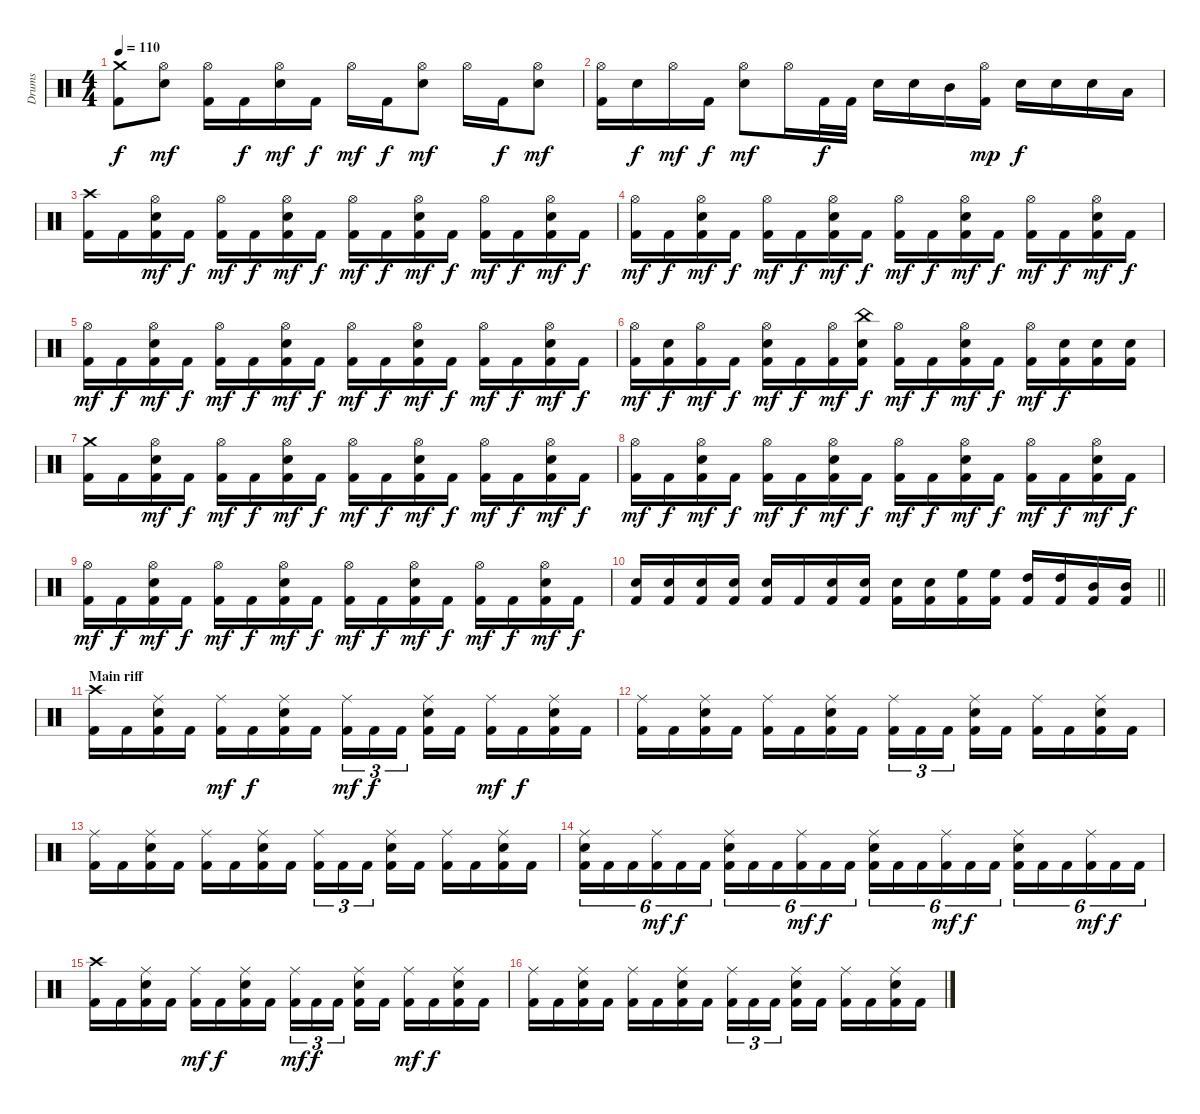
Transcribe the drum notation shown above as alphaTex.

\track ("Drums" "Drums") {instrument percussion}
\staff {score}
\articulation defaults
\ts (4 4)
\tempo 110
\clef neutral
\ks c
("Crash medium (hit)" "Kick (hit) 2").8{dy f} ("Hi-Hat (open)" "Electric Snare (hit)").8{dy mf} ("Hi-Hat (open)" "Kick (hit) 2").16 "Kick (hit) 2".16{dy f} ("Hi-Hat (open)" "Electric Snare (hit)").16{dy mf} "Kick (hit) 2".16{dy f} "Hi-Hat (open)".16{dy mf} "Kick (hit) 2".16{dy f} ("Hi-Hat (open)" "Electric Snare (hit)").8{dy mf} "Hi-Hat (open)".16 "Kick (hit) 2".16{dy f} ("Hi-Hat (open)" "Electric Snare (hit)").8{dy mf} |
("Hi-Hat (open)" "Kick (hit) 2").16 "Electric Snare (hit)".16{dy f} "Hi-Hat (open)".16{dy mf} "Kick (hit) 2".16{dy f} ("Hi-Hat (open)" "Electric Snare (hit)").8{dy mf} "Hi-Hat (open)".16 "Kick (hit) 2".32{dy f} "Kick (hit) 2".32 "Electric Snare (hit)".16 "Electric Snare (hit)".16 "Mid Tom (hit)".16 ("Hi-Hat (open)" "Kick (hit) 2").16{dy mp} "Electric Snare (hit)".16{dy f} "Electric Snare (hit)".16 "Electric Snare (hit)".16 "Low Tom (hit)".16 |
("Crash high (hit)" "Kick (hit) 2").16 "Kick (hit) 2".16 ("Hi-Hat (open)" "Electric Snare (hit)" "Kick (hit) 2").16{dy mf} "Kick (hit) 2".16{dy f} ("Hi-Hat (open)" "Kick (hit) 2").16{dy mf} "Kick (hit) 2".16{dy f} ("Hi-Hat (open)" "Electric Snare (hit)" "Kick (hit) 2").16{dy mf} "Kick (hit) 2".16{dy f} ("Hi-Hat (open)" "Kick (hit) 2").16{dy mf} "Kick (hit) 2".16{dy f} ("Hi-Hat (open)" "Electric Snare (hit)" "Kick (hit) 2").16{dy mf} "Kick (hit) 2".16{dy f} ("Hi-Hat (open)" "Kick (hit) 2").16{dy mf} "Kick (hit) 2".16{dy f} ("Hi-Hat (open)" "Electric Snare (hit)" "Kick (hit) 2").16{dy mf} "Kick (hit) 2".16{dy f} |
("Hi-Hat (open)" "Kick (hit) 2").16{dy mf} "Kick (hit) 2".16{dy f} ("Hi-Hat (open)" "Electric Snare (hit)" "Kick (hit) 2").16{dy mf} "Kick (hit) 2".16{dy f} ("Hi-Hat (open)" "Kick (hit) 2").16{dy mf} "Kick (hit) 2".16{dy f} ("Hi-Hat (open)" "Electric Snare (hit)" "Kick (hit) 2").16{dy mf} "Kick (hit) 2".16{dy f} ("Hi-Hat (open)" "Kick (hit) 2").16{dy mf} "Kick (hit) 2".16{dy f} ("Hi-Hat (open)" "Electric Snare (hit)" "Kick (hit) 2").16{dy mf} "Kick (hit) 2".16{dy f} ("Hi-Hat (open)" "Kick (hit) 2").16{dy mf} "Kick (hit) 2".16{dy f} ("Hi-Hat (open)" "Electric Snare (hit)" "Kick (hit) 2").16{dy mf} "Kick (hit) 2".16{dy f} |
("Hi-Hat (open)" "Kick (hit) 2").16{dy mf} "Kick (hit) 2".16{dy f} ("Hi-Hat (open)" "Electric Snare (hit)" "Kick (hit) 2").16{dy mf} "Kick (hit) 2".16{dy f} ("Hi-Hat (open)" "Kick (hit) 2").16{dy mf} "Kick (hit) 2".16{dy f} ("Hi-Hat (open)" "Electric Snare (hit)" "Kick (hit) 2").16{dy mf} "Kick (hit) 2".16{dy f} ("Hi-Hat (open)" "Kick (hit) 2").16{dy mf} "Kick (hit) 2".16{dy f} ("Hi-Hat (open)" "Electric Snare (hit)" "Kick (hit) 2").16{dy mf} "Kick (hit) 2".16{dy f} ("Hi-Hat (open)" "Kick (hit) 2").16{dy mf} "Kick (hit) 2".16{dy f} ("Hi-Hat (open)" "Electric Snare (hit)" "Kick (hit) 2").16{dy mf} "Kick (hit) 2".16{dy f} |
("Hi-Hat (open)" "Kick (hit) 2").16{dy mf} ("Electric Snare (hit)" "Kick (hit) 2").16{dy f} ("Hi-Hat (open)" "Kick (hit) 2").16{dy mf} "Kick (hit) 2".16{dy f} ("Hi-Hat (open)" "Electric Snare (hit)" "Kick (hit) 2").16{dy mf} "Kick (hit) 2".16{dy f} ("Hi-Hat (open)" "Kick (hit) 2").16{dy mf} ("China (hit)" "Electric Snare (hit)" "Kick (hit) 2").16{dy f} ("Hi-Hat (open)" "Kick (hit) 2").16{dy mf} "Kick (hit) 2".16{dy f} ("Hi-Hat (open)" "Electric Snare (hit)" "Kick (hit) 2").16{dy mf} "Kick (hit) 2".16{dy f} ("Hi-Hat (open)" "Kick (hit) 2").16{dy mf} ("Electric Snare (hit)" "Kick (hit) 2").16{dy f} ("Electric Snare (hit)" "Kick (hit) 2").16 ("Electric Snare (hit)" "Kick (hit) 2").16 |
("Crash medium (hit)" "Kick (hit) 2").16 "Kick (hit) 2".16 ("Hi-Hat (open)" "Electric Snare (hit)" "Kick (hit) 2").16{dy mf} "Kick (hit) 2".16{dy f} ("Hi-Hat (open)" "Kick (hit) 2").16{dy mf} "Kick (hit) 2".16{dy f} ("Hi-Hat (open)" "Electric Snare (hit)" "Kick (hit) 2").16{dy mf} "Kick (hit) 2".16{dy f} ("Hi-Hat (open)" "Kick (hit) 2").16{dy mf} "Kick (hit) 2".16{dy f} ("Hi-Hat (open)" "Electric Snare (hit)" "Kick (hit) 2").16{dy mf} "Kick (hit) 2".16{dy f} ("Hi-Hat (open)" "Kick (hit) 2").16{dy mf} "Kick (hit) 2".16{dy f} ("Hi-Hat (open)" "Electric Snare (hit)" "Kick (hit) 2").16{dy mf} "Kick (hit) 2".16{dy f} |
("Hi-Hat (open)" "Kick (hit) 2").16{dy mf} "Kick (hit) 2".16{dy f} ("Hi-Hat (open)" "Electric Snare (hit)" "Kick (hit) 2").16{dy mf} "Kick (hit) 2".16{dy f} ("Hi-Hat (open)" "Kick (hit) 2").16{dy mf} "Kick (hit) 2".16{dy f} ("Hi-Hat (open)" "Electric Snare (hit)" "Kick (hit) 2").16{dy mf} "Kick (hit) 2".16{dy f} ("Hi-Hat (open)" "Kick (hit) 2").16{dy mf} "Kick (hit) 2".16{dy f} ("Hi-Hat (open)" "Electric Snare (hit)" "Kick (hit) 2").16{dy mf} "Kick (hit) 2".16{dy f} ("Hi-Hat (open)" "Kick (hit) 2").16{dy mf} "Kick (hit) 2".16{dy f} ("Hi-Hat (open)" "Electric Snare (hit)" "Kick (hit) 2").16{dy mf} "Kick (hit) 2".16{dy f} |
("Hi-Hat (open)" "Kick (hit) 2").16{dy mf} "Kick (hit) 2".16{dy f} ("Hi-Hat (open)" "Electric Snare (hit)" "Kick (hit) 2").16{dy mf} "Kick (hit) 2".16{dy f} ("Hi-Hat (open)" "Kick (hit) 2").16{dy mf} "Kick (hit) 2".16{dy f} ("Hi-Hat (open)" "Electric Snare (hit)" "Kick (hit) 2").16{dy mf} "Kick (hit) 2".16{dy f} ("Hi-Hat (open)" "Kick (hit) 2").16{dy mf} "Kick (hit) 2".16{dy f} ("Hi-Hat (open)" "Electric Snare (hit)" "Kick (hit) 2").16{dy mf} "Kick (hit) 2".16{dy f} ("Hi-Hat (open)" "Kick (hit) 2").16{dy mf} "Kick (hit) 2".16{dy f} ("Hi-Hat (open)" "Electric Snare (hit)" "Kick (hit) 2").16{dy mf} "Kick (hit) 2".16{dy f} |
\barLineRight lightlight
("Electric Snare (hit)" "Kick (hit) 2").16 ("Electric Snare (hit)" "Kick (hit) 2").16 ("Electric Snare (hit)" "Kick (hit) 2").16 ("Electric Snare (hit)" "Kick (hit) 2").16 ("Electric Snare (hit)" "Kick (hit) 2").16 "Kick (hit) 2".16 ("Electric Snare (hit)" "Kick (hit) 2").16 ("Electric Snare (hit)" "Kick (hit) 2").16 ("Electric Snare (hit)" "Kick (hit) 2").16 ("Electric Snare (hit)" "Kick (hit) 2").16 ("High Floor Tom (hit)" "Kick (hit) 2").16 ("High Floor Tom (hit)" "Kick (hit) 2").16 ("High Tom (hit)" "Kick (hit) 2").16 ("High Tom (hit)" "Kick (hit) 2").16 ("Mid Tom (hit)" "Kick (hit) 2").16 ("Mid Tom (hit)" "Kick (hit) 2").16 |
\section ("" "Main riff")
("Crash high (hit)" "Kick (hit) 2").16 "Kick (hit) 2".16 ("Ride (middle)" "Electric Snare (hit)" "Kick (hit) 2").16 "Kick (hit) 2".16 ("Ride (middle)" "Kick (hit) 2").16{dy mf} "Kick (hit) 2".16{dy f} ("Ride (middle)" "Electric Snare (hit)" "Kick (hit) 2").16 "Kick (hit) 2".16 ("Ride (middle)" "Kick (hit) 2").16{tu (3 2) dy mf} "Kick (hit) 2".16{tu (3 2) dy f} "Kick (hit) 2".16{tu (3 2)} ("Ride (middle)" "Electric Snare (hit)" "Kick (hit) 2").16 "Kick (hit) 2".16 ("Ride (middle)" "Kick (hit) 2").16{dy mf} "Kick (hit) 2".16{dy f} ("Ride (middle)" "Electric Snare (hit)" "Kick (hit) 2").16 "Kick (hit) 2".16 |
("Ride (middle)" "Kick (hit) 2").16 "Kick (hit) 2".16 ("Ride (middle)" "Electric Snare (hit)" "Kick (hit) 2").16 "Kick (hit) 2".16 ("Ride (middle)" "Kick (hit) 2").16 "Kick (hit) 2".16 ("Ride (middle)" "Electric Snare (hit)" "Kick (hit) 2").16 "Kick (hit) 2".16 ("Ride (middle)" "Kick (hit) 2").16{tu (3 2)} "Kick (hit) 2".16{tu (3 2)} "Kick (hit) 2".16{tu (3 2)} ("Ride (middle)" "Electric Snare (hit)" "Kick (hit) 2").16 "Kick (hit) 2".16 ("Ride (middle)" "Kick (hit) 2").16 "Kick (hit) 2".16 ("Ride (middle)" "Electric Snare (hit)" "Kick (hit) 2").16 "Kick (hit) 2".16 |
("Ride (middle)" "Kick (hit) 2").16 "Kick (hit) 2".16 ("Ride (middle)" "Electric Snare (hit)" "Kick (hit) 2").16 "Kick (hit) 2".16 ("Ride (middle)" "Kick (hit) 2").16 "Kick (hit) 2".16 ("Ride (middle)" "Electric Snare (hit)" "Kick (hit) 2").16 "Kick (hit) 2".16 ("Ride (middle)" "Kick (hit) 2").16{tu (3 2)} "Kick (hit) 2".16{tu (3 2)} "Kick (hit) 2".16{tu (3 2)} ("Ride (middle)" "Electric Snare (hit)" "Kick (hit) 2").16 "Kick (hit) 2".16 ("Ride (middle)" "Kick (hit) 2").16 "Kick (hit) 2".16 ("Ride (middle)" "Electric Snare (hit)" "Kick (hit) 2").16 "Kick (hit) 2".16 |
("Ride (middle)" "Electric Snare (hit)" "Kick (hit) 2").16{tu (6 4)} "Kick (hit) 2".16{tu (6 4)} "Kick (hit) 2".16{tu (6 4)} ("Ride (middle)" "Kick (hit) 2").16{tu (6 4) dy mf} "Kick (hit) 2".16{tu (6 4) dy f} "Kick (hit) 2".16{tu (6 4)} ("Ride (middle)" "Electric Snare (hit)" "Kick (hit) 2").16{tu (6 4)} "Kick (hit) 2".16{tu (6 4)} "Kick (hit) 2".16{tu (6 4)} ("Ride (middle)" "Kick (hit) 2").16{tu (6 4) dy mf} "Kick (hit) 2".16{tu (6 4) dy f} "Kick (hit) 2".16{tu (6 4)} ("Ride (middle)" "Electric Snare (hit)" "Kick (hit) 2").16{tu (6 4)} "Kick (hit) 2".16{tu (6 4)} "Kick (hit) 2".16{tu (6 4)} ("Ride (middle)" "Kick (hit) 2").16{tu (6 4) dy mf} "Kick (hit) 2".16{tu (6 4) dy f} "Kick (hit) 2".16{tu (6 4)} ("Ride (middle)" "Electric Snare (hit)" "Kick (hit) 2").16{tu (6 4)} "Kick (hit) 2".16{tu (6 4)} "Kick (hit) 2".16{tu (6 4)} ("Ride (middle)" "Kick (hit) 2").16{tu (6 4) dy mf} "Kick (hit) 2".16{tu (6 4) dy f} "Kick (hit) 2".16{tu (6 4)} |
("Crash high (hit)" "Kick (hit) 2").16 "Kick (hit) 2".16 ("Ride (middle)" "Electric Snare (hit)" "Kick (hit) 2").16 "Kick (hit) 2".16 ("Ride (middle)" "Kick (hit) 2").16{dy mf} "Kick (hit) 2".16{dy f} ("Ride (middle)" "Electric Snare (hit)" "Kick (hit) 2").16 "Kick (hit) 2".16 ("Ride (middle)" "Kick (hit) 2").16{tu (3 2) dy mf} "Kick (hit) 2".16{tu (3 2) dy f} "Kick (hit) 2".16{tu (3 2)} ("Ride (middle)" "Electric Snare (hit)" "Kick (hit) 2").16 "Kick (hit) 2".16 ("Ride (middle)" "Kick (hit) 2").16{dy mf} "Kick (hit) 2".16{dy f} ("Ride (middle)" "Electric Snare (hit)" "Kick (hit) 2").16 "Kick (hit) 2".16 |
("Ride (middle)" "Kick (hit) 2").16 "Kick (hit) 2".16 ("Ride (middle)" "Electric Snare (hit)" "Kick (hit) 2").16 "Kick (hit) 2".16 ("Ride (middle)" "Kick (hit) 2").16 "Kick (hit) 2".16 ("Ride (middle)" "Electric Snare (hit)" "Kick (hit) 2").16 "Kick (hit) 2".16 ("Ride (middle)" "Kick (hit) 2").16{tu (3 2)} "Kick (hit) 2".16{tu (3 2)} "Kick (hit) 2".16{tu (3 2)} ("Ride (middle)" "Electric Snare (hit)" "Kick (hit) 2").16 "Kick (hit) 2".16 ("Ride (middle)" "Kick (hit) 2").16 "Kick (hit) 2".16 ("Ride (middle)" "Electric Snare (hit)" "Kick (hit) 2").16 "Kick (hit) 2".16
